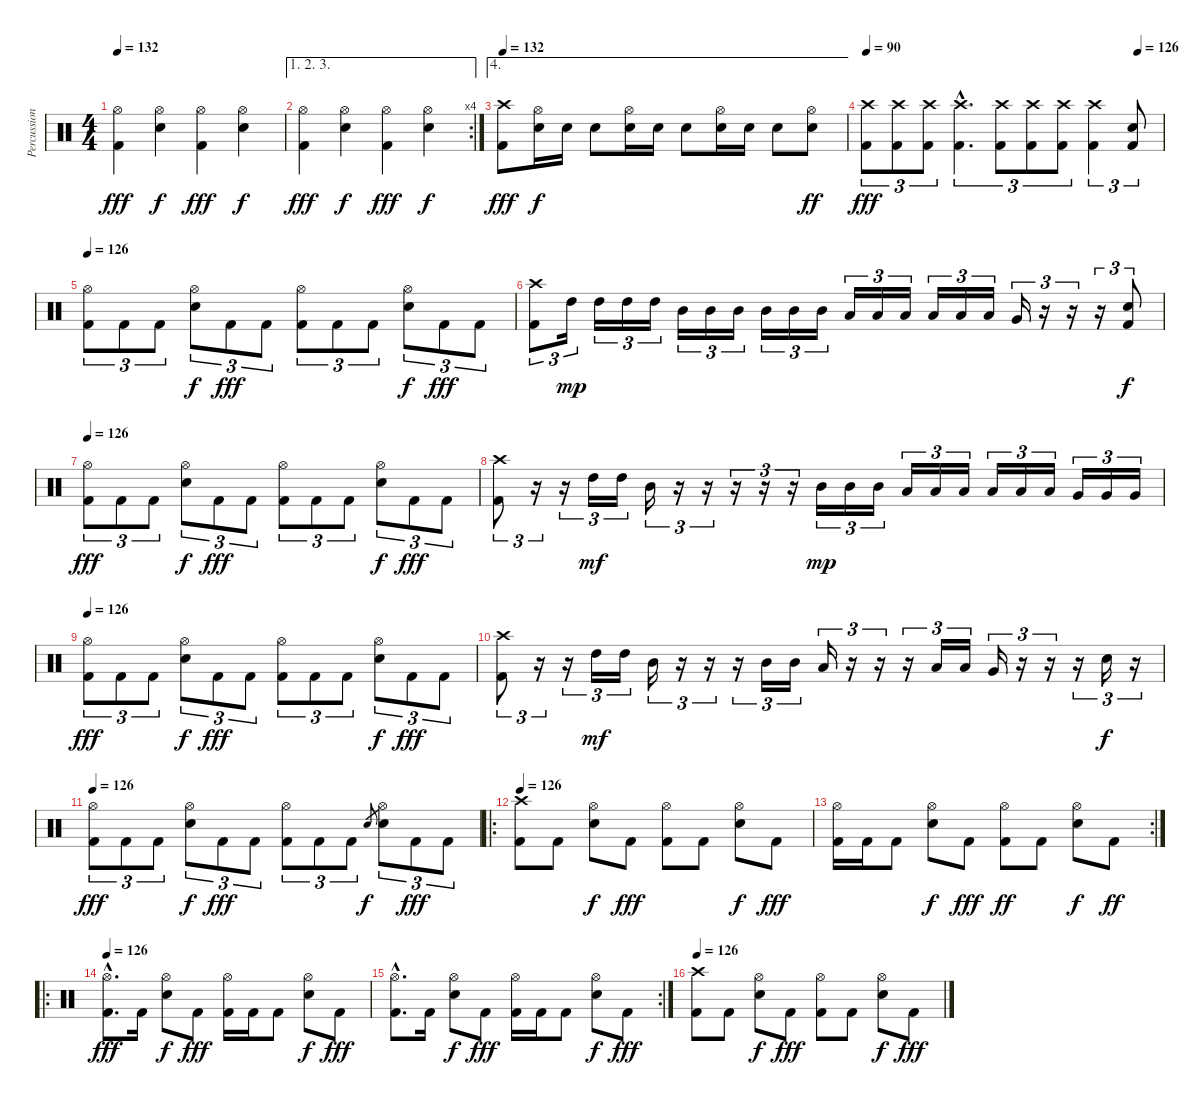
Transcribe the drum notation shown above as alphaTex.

\track ("Percussion" "Percussion") {instrument percussion}
\staff {score}
\articulation defaults
\ts (4 4)
\tempo 132
\clef neutral
\ks c
("Hi-Hat (open)" "Kick (hit) 2").4{dy fff} ("Hi-Hat (open)" "Snare (hit) 2").4{dy f} ("Hi-Hat (open)" "Kick (hit) 2").4{dy fff} ("Hi-Hat (open)" "Snare (hit) 2").4{dy f} |
\ae (1 2 3)
\rc 4
("Hi-Hat (open)" "Kick (hit) 2").4{dy fff} ("Hi-Hat (open)" "Snare (hit) 2").4{dy f} ("Hi-Hat (open)" "Kick (hit) 2").4{dy fff} ("Hi-Hat (open)" "Snare (hit) 2").4{dy f} |
\ae 4
\tempo 132
("Crash high (hit)" "Kick (hit) 2").8{dy fff} ("Hi-Hat (open)" "Snare (hit) 2").16{dy f} "Snare (hit) 2".16 "Snare (hit) 2".8 ("Hi-Hat (open)" "Snare (hit) 2").16 "Snare (hit) 2".16 "Snare (hit) 2".8 ("Hi-Hat (open)" "Snare (hit) 2").16 "Snare (hit) 2".16 "Snare (hit) 2".8 ("Hi-Hat (open)" "Snare (hit) 2").8{dy ff} |
\tempo 90
\tempo (126 0.9166666666666666)
("Crash high (hit)" "Kick (hit) 2").8{tu (3 2) dy fff} ("Crash high (hit)" "Kick (hit) 2").8{tu (3 2)} ("Crash high (hit)" "Kick (hit) 2").8{tu (3 2)} ("Crash high (hit)"{hac} "Kick (hit) 2"{hac}).4{d tu (3 2)} ("Crash high (hit)" "Kick (hit) 2").8{tu (3 2)} ("Crash high (hit)" "Kick (hit) 2").8{tu (3 2)} ("Crash high (hit)" "Kick (hit) 2").8{tu (3 2)} ("Crash high (hit)" "Kick (hit) 2").4{tu (3 2)} ("Snare (hit) 2" "Kick (hit) 2").8{tu (3 2)} |
\tempo 126
("Hi-Hat (open)" "Kick (hit) 2").8{tu (3 2)} "Kick (hit) 2".8{tu (3 2)} "Kick (hit) 2".8{tu (3 2)} ("Hi-Hat (open)" "Snare (hit) 2").8{tu (3 2) dy f} "Kick (hit) 2".8{tu (3 2) dy fff} "Kick (hit) 2".8{tu (3 2)} ("Hi-Hat (open)" "Kick (hit) 2").8{tu (3 2)} "Kick (hit) 2".8{tu (3 2)} "Kick (hit) 2".8{tu (3 2)} ("Hi-Hat (open)" "Snare (hit) 2").8{tu (3 2) dy f} "Kick (hit) 2".8{tu (3 2) dy fff} "Kick (hit) 2".8{tu (3 2)} |
("Crash high (hit)" "Kick (hit) 2").8{tu (3 2)} "High Tom (hit)".16{tu (3 2) dy mp} "High Tom (hit)".16{tu (3 2)} "High Tom (hit)".16{tu (3 2)} "High Tom (hit)".16{tu (3 2)} "Mid Tom (hit)".16{tu (3 2)} "Mid Tom (hit)".16{tu (3 2)} "Mid Tom (hit)".16{tu (3 2)} "Mid Tom (hit)".16{tu (3 2)} "Mid Tom (hit)".16{tu (3 2)} "Mid Tom (hit)".16{tu (3 2)} "Low Tom (hit)".16{tu (3 2)} "Low Tom (hit)".16{tu (3 2)} "Low Tom (hit)".16{tu (3 2)} "Low Tom (hit)".16{tu (3 2)} "Low Tom (hit)".16{tu (3 2)} "Low Tom (hit)".16{tu (3 2)} "Very Low Tom (hit)".16{tu (3 2)} r.16{tu (3 2)} r.16{tu (3 2)} r.16{tu (3 2)} ("Snare (hit) 2" "Kick (hit) 2").8{tu (3 2) dy f} |
\tempo 126
("Hi-Hat (open)" "Kick (hit) 2").8{tu (3 2) dy fff} "Kick (hit) 2".8{tu (3 2)} "Kick (hit) 2".8{tu (3 2)} ("Hi-Hat (open)" "Snare (hit) 2").8{tu (3 2) dy f} "Kick (hit) 2".8{tu (3 2) dy fff} "Kick (hit) 2".8{tu (3 2)} ("Hi-Hat (open)" "Kick (hit) 2").8{tu (3 2)} "Kick (hit) 2".8{tu (3 2)} "Kick (hit) 2".8{tu (3 2)} ("Hi-Hat (open)" "Snare (hit) 2").8{tu (3 2) dy f} "Kick (hit) 2".8{tu (3 2) dy fff} "Kick (hit) 2".8{tu (3 2)} |
("Crash high (hit)" "Kick (hit) 2").8{tu (3 2)} r.16{tu (3 2)} r.16{tu (3 2)} "High Tom (hit)".16{tu (3 2) dy mf} "High Tom (hit)".16{tu (3 2)} "Mid Tom (hit)".16{tu (3 2)} r.16{tu (3 2)} r.16{tu (3 2)} r.16{tu (3 2)} r.16{tu (3 2)} r.16{tu (3 2)} "Mid Tom (hit)".16{tu (3 2) dy mp} "Mid Tom (hit)".16{tu (3 2)} "Mid Tom (hit)".16{tu (3 2)} "Low Tom (hit)".16{tu (3 2)} "Low Tom (hit)".16{tu (3 2)} "Low Tom (hit)".16{tu (3 2)} "Low Tom (hit)".16{tu (3 2)} "Low Tom (hit)".16{tu (3 2)} "Low Tom (hit)".16{tu (3 2)} "Very Low Tom (hit)".16{tu (3 2)} "Very Low Tom (hit)".16{tu (3 2)} "Very Low Tom (hit)".16{tu (3 2)} |
\tempo 126
("Hi-Hat (open)" "Kick (hit) 2").8{tu (3 2) dy fff} "Kick (hit) 2".8{tu (3 2)} "Kick (hit) 2".8{tu (3 2)} ("Hi-Hat (open)" "Snare (hit) 2").8{tu (3 2) dy f} "Kick (hit) 2".8{tu (3 2) dy fff} "Kick (hit) 2".8{tu (3 2)} ("Hi-Hat (open)" "Kick (hit) 2").8{tu (3 2)} "Kick (hit) 2".8{tu (3 2)} "Kick (hit) 2".8{tu (3 2)} ("Hi-Hat (open)" "Snare (hit) 2").8{tu (3 2) dy f} "Kick (hit) 2".8{tu (3 2) dy fff} "Kick (hit) 2".8{tu (3 2)} |
("Crash high (hit)" "Kick (hit) 2").8{tu (3 2)} r.16{tu (3 2)} r.16{tu (3 2)} "High Tom (hit)".16{tu (3 2) dy mf} "High Tom (hit)".16{tu (3 2)} "Mid Tom (hit)".16{tu (3 2)} r.16{tu (3 2)} r.16{tu (3 2)} r.16{tu (3 2)} "Mid Tom (hit)".16{tu (3 2)} "Mid Tom (hit)".16{tu (3 2)} "Low Tom (hit)".16{tu (3 2)} r.16{tu (3 2)} r.16{tu (3 2)} r.16{tu (3 2)} "Low Tom (hit)".16{tu (3 2)} "Low Tom (hit)".16{tu (3 2)} "Very Low Tom (hit)".16{tu (3 2)} r.16{tu (3 2)} r.16{tu (3 2)} r.16{tu (3 2)} "Snare (hit) 2".16{tu (3 2) dy f} r.16{tu (3 2)} |
\tempo 126
("Hi-Hat (open)" "Kick (hit) 2").8{tu (3 2) dy fff} "Kick (hit) 2".8{tu (3 2)} "Kick (hit) 2".8{tu (3 2)} ("Hi-Hat (open)" "Snare (hit) 2").8{tu (3 2) dy f} "Kick (hit) 2".8{tu (3 2) dy fff} "Kick (hit) 2".8{tu (3 2)} ("Hi-Hat (open)" "Kick (hit) 2").8{tu (3 2)} "Kick (hit) 2".8{tu (3 2)} "Kick (hit) 2".8{tu (3 2)} "Snare (hit) 2".8{gr dy f} ("Hi-Hat (open)" "Snare (hit) 2").8{tu (3 2)} "Kick (hit) 2".8{tu (3 2) dy fff} "Kick (hit) 2".8{tu (3 2)} |
\ro
\tempo 126
("Crash high (hit)" "Kick (hit) 2").8 "Kick (hit) 2".8 ("Hi-Hat (open)" "Snare (hit) 2").8{dy f} "Kick (hit) 2".8{dy fff} ("Hi-Hat (open)" "Kick (hit) 2").8 "Kick (hit) 2".8 ("Hi-Hat (open)" "Snare (hit) 2").8{dy f} "Kick (hit) 2".8{dy fff} |
\rc 2
("Hi-Hat (open)" "Kick (hit) 2").16 "Kick (hit) 2".16 "Kick (hit) 2".8 ("Hi-Hat (open)" "Snare (hit) 2").8{dy f} "Kick (hit) 2".8{dy fff} ("Hi-Hat (open)" "Kick (hit) 2").8{dy ff} "Kick (hit) 2".8 ("Hi-Hat (open)" "Snare (hit) 2").8{dy f} "Kick (hit) 2".8{dy ff} |
\ro
\tempo 126
("Hi-Hat (open)"{hac} "Kick (hit) 2"{hac}).8{d dy fff} "Kick (hit) 2".16 ("Hi-Hat (open)" "Snare (hit) 2").8{dy f} "Kick (hit) 2".8{dy fff} ("Hi-Hat (open)" "Kick (hit) 2").16 "Kick (hit) 2".16 "Kick (hit) 2".8 ("Hi-Hat (open)" "Snare (hit) 2").8{dy f} "Kick (hit) 2".8{dy fff} |
\rc 2
("Hi-Hat (open)"{hac} "Kick (hit) 2"{hac}).8{d} "Kick (hit) 2".16 ("Hi-Hat (open)" "Snare (hit) 2").8{dy f} "Kick (hit) 2".8{dy fff} ("Hi-Hat (open)" "Kick (hit) 2").16 "Kick (hit) 2".16 "Kick (hit) 2".8 ("Hi-Hat (open)" "Snare (hit) 2").8{dy f} "Kick (hit) 2".8{dy fff} |
\tempo 126
("Crash high (hit)" "Kick (hit) 2").8 "Kick (hit) 2".8 ("Hi-Hat (open)" "Snare (hit) 2").8{dy f} "Kick (hit) 2".8{dy fff} ("Hi-Hat (open)" "Kick (hit) 2").8 "Kick (hit) 2".8 ("Hi-Hat (open)" "Snare (hit) 2").8{dy f} "Kick (hit) 2".8{dy fff}
